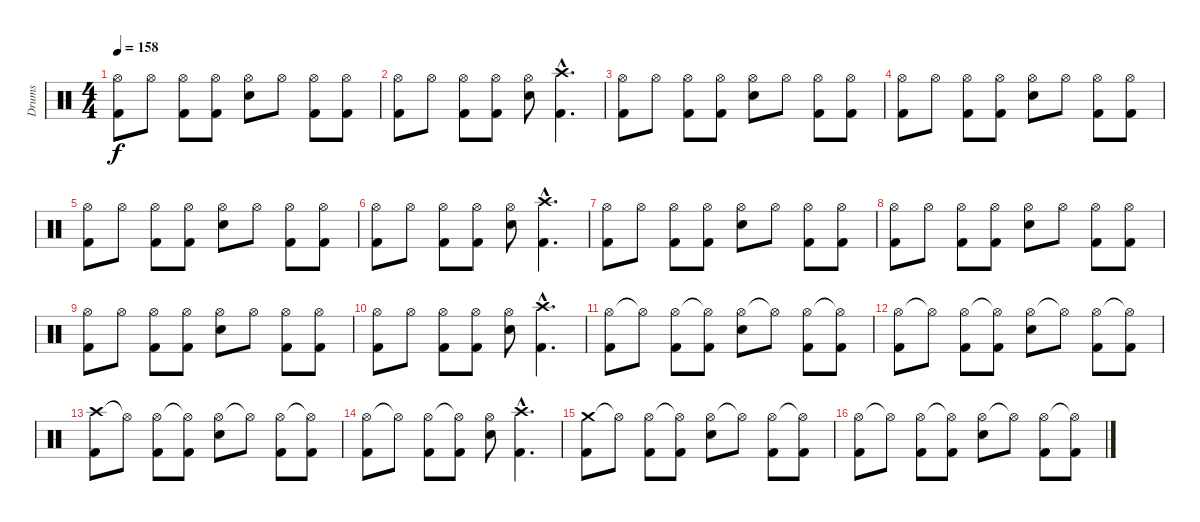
\track ("Drums" "Drums") {instrument percussion}
\staff {score}
\articulation defaults
\ts (4 4)
\tempo 158
\clef neutral
\ks c
("Hi-Hat (open)" "Kick (hit) 2").8{dy f} "Hi-Hat (open)".8 ("Hi-Hat (open)" "Kick (hit) 2").8 ("Hi-Hat (open)" "Kick (hit) 2").8 ("Hi-Hat (open)" "Snare (hit) 2").8 "Hi-Hat (open)".8 ("Hi-Hat (open)" "Kick (hit) 2").8 ("Hi-Hat (open)" "Kick (hit) 2").8 |
("Hi-Hat (open)" "Kick (hit) 2").8 "Hi-Hat (open)".8 ("Hi-Hat (open)" "Kick (hit) 2").8 ("Hi-Hat (open)" "Kick (hit) 2").8 ("Hi-Hat (open)" "Snare (hit) 2").8 ("Crash high (hit)"{hac} "Kick (hit) 2"{hac}).4{d} |
("Hi-Hat (open)" "Kick (hit) 2").8 "Hi-Hat (open)".8 ("Hi-Hat (open)" "Kick (hit) 2").8 ("Hi-Hat (open)" "Kick (hit) 2").8 ("Hi-Hat (open)" "Snare (hit) 2").8 "Hi-Hat (open)".8 ("Hi-Hat (open)" "Kick (hit) 2").8 ("Hi-Hat (open)" "Kick (hit) 2").8 |
("Hi-Hat (open)" "Kick (hit) 2").8 "Hi-Hat (open)".8 ("Hi-Hat (open)" "Kick (hit) 2").8 ("Hi-Hat (open)" "Kick (hit) 2").8 ("Hi-Hat (open)" "Snare (hit) 2").8 "Hi-Hat (open)".8 ("Hi-Hat (open)" "Kick (hit) 2").8 ("Hi-Hat (open)" "Kick (hit) 2").8 |
("Hi-Hat (open)" "Kick (hit) 2").8 "Hi-Hat (open)".8 ("Hi-Hat (open)" "Kick (hit) 2").8 ("Hi-Hat (open)" "Kick (hit) 2").8 ("Hi-Hat (open)" "Snare (hit) 2").8 "Hi-Hat (open)".8 ("Hi-Hat (open)" "Kick (hit) 2").8 ("Hi-Hat (open)" "Kick (hit) 2").8 |
("Hi-Hat (open)" "Kick (hit) 2").8 "Hi-Hat (open)".8 ("Hi-Hat (open)" "Kick (hit) 2").8 ("Hi-Hat (open)" "Kick (hit) 2").8 ("Hi-Hat (open)" "Snare (hit) 2").8 ("Crash high (hit)"{hac} "Kick (hit) 2"{hac}).4{d} |
("Hi-Hat (open)" "Kick (hit) 2").8 "Hi-Hat (open)".8 ("Hi-Hat (open)" "Kick (hit) 2").8 ("Hi-Hat (open)" "Kick (hit) 2").8 ("Hi-Hat (open)" "Snare (hit) 2").8 "Hi-Hat (open)".8 ("Hi-Hat (open)" "Kick (hit) 2").8 ("Hi-Hat (open)" "Kick (hit) 2").8 |
("Hi-Hat (open)" "Kick (hit) 2").8 "Hi-Hat (open)".8 ("Hi-Hat (open)" "Kick (hit) 2").8 ("Hi-Hat (open)" "Kick (hit) 2").8 ("Hi-Hat (open)" "Snare (hit) 2").8 "Hi-Hat (open)".8 ("Hi-Hat (open)" "Kick (hit) 2").8 ("Hi-Hat (open)" "Kick (hit) 2").8 |
("Hi-Hat (open)" "Kick (hit) 2").8 "Hi-Hat (open)".8 ("Hi-Hat (open)" "Kick (hit) 2").8 ("Hi-Hat (open)" "Kick (hit) 2").8 ("Hi-Hat (open)" "Snare (hit) 2").8 "Hi-Hat (open)".8 ("Hi-Hat (open)" "Kick (hit) 2").8 ("Hi-Hat (open)" "Kick (hit) 2").8 |
("Hi-Hat (open)" "Kick (hit) 2").8 "Hi-Hat (open)".8 ("Hi-Hat (open)" "Kick (hit) 2").8 ("Hi-Hat (open)" "Kick (hit) 2").8 ("Hi-Hat (open)" "Snare (hit) 2").8 ("Crash high (hit)"{hac} "Kick (hit) 2"{hac}).4{d} |
("Hi-Hat (open)" "Kick (hit) 2").8 "Hi-Hat (open)"{t}.8 ("Hi-Hat (open)" "Kick (hit) 2").8 ("Hi-Hat (open)"{t} "Kick (hit) 2").8 ("Hi-Hat (open)" "Snare (hit) 2").8 "Hi-Hat (open)"{t}.8 ("Hi-Hat (open)" "Kick (hit) 2").8 ("Hi-Hat (open)"{t} "Kick (hit) 2").8 |
("Hi-Hat (open)" "Kick (hit) 2").8 "Hi-Hat (open)"{t}.8 ("Hi-Hat (open)" "Kick (hit) 2").8 ("Hi-Hat (open)"{t} "Kick (hit) 2").8 ("Hi-Hat (open)" "Snare (hit) 2").8 "Hi-Hat (open)"{t}.8 ("Hi-Hat (open)" "Kick (hit) 2").8 ("Hi-Hat (open)"{t} "Kick (hit) 2").8 |
("Crash high (hit)" "Kick (hit) 2").8 "Hi-Hat (open)"{t}.8 ("Hi-Hat (open)" "Kick (hit) 2").8 ("Hi-Hat (open)"{t} "Kick (hit) 2").8 ("Hi-Hat (open)" "Snare (hit) 2").8 "Hi-Hat (open)"{t}.8 ("Hi-Hat (open)" "Kick (hit) 2").8 ("Hi-Hat (open)"{t} "Kick (hit) 2").8 |
("Hi-Hat (open)" "Kick (hit) 2").8 "Hi-Hat (open)"{t}.8 ("Hi-Hat (open)" "Kick (hit) 2").8 ("Hi-Hat (open)"{t} "Kick (hit) 2").8 ("Hi-Hat (open)" "Snare (hit) 2").8 ("Crash high (hit)"{hac} "Kick (hit) 2"{hac}).4{d} |
("Crash medium (hit)" "Kick (hit) 2").8 "Hi-Hat (open)"{t}.8 ("Hi-Hat (open)" "Kick (hit) 2").8 ("Hi-Hat (open)"{t} "Kick (hit) 2").8 ("Hi-Hat (open)" "Snare (hit) 2").8 "Hi-Hat (open)"{t}.8 ("Hi-Hat (open)" "Kick (hit) 2").8 ("Hi-Hat (open)"{t} "Kick (hit) 2").8 |
("Hi-Hat (open)" "Kick (hit) 2").8 "Hi-Hat (open)"{t}.8 ("Hi-Hat (open)" "Kick (hit) 2").8 ("Hi-Hat (open)"{t} "Kick (hit) 2").8 ("Hi-Hat (open)" "Snare (hit) 2").8 "Hi-Hat (open)"{t}.8 ("Hi-Hat (open)" "Kick (hit) 2").8 ("Hi-Hat (open)"{t} "Kick (hit) 2").8
